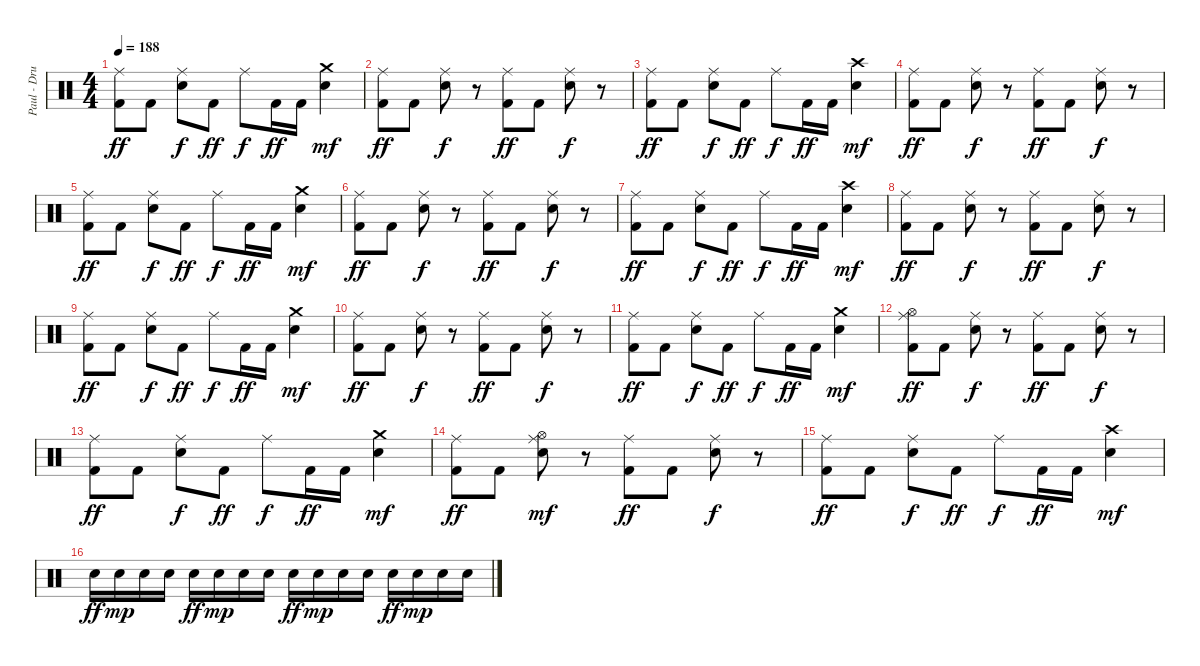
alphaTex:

\track ("Paul - Drums" "Paul - Dru") {instrument percussion}
\staff {score}
\articulation defaults
\ts (4 4)
\tempo 188
\clef neutral
\ks c
("Ride (middle)" "Kick (hit) 2").8{dy ff} "Kick (hit) 2".8 ("Ride (middle)" "Electric Snare (hit)").8{dy f} "Kick (hit) 2".8{dy ff} "Ride (middle)".8{dy f} "Kick (hit) 2".16{dy ff} "Kick (hit) 2".16 ("Crash medium (hit)" "Electric Snare (hit)").4{dy mf} |
("Ride (middle)" "Kick (hit) 2").8{dy ff} "Kick (hit) 2".8 ("Ride (middle)" "Electric Snare (hit)").8{dy f} r.8 ("Ride (middle)" "Kick (hit) 2").8{dy ff} "Kick (hit) 2".8 ("Ride (middle)" "Electric Snare (hit)").8{dy f} r.8 |
("Ride (middle)" "Kick (hit) 2").8{dy ff} "Kick (hit) 2".8 ("Ride (middle)" "Electric Snare (hit)").8{dy f} "Kick (hit) 2".8{dy ff} "Ride (middle)".8{dy f} "Kick (hit) 2".16{dy ff} "Kick (hit) 2".16 ("Crash high (hit)" "Electric Snare (hit)").4{dy mf} |
("Ride (middle)" "Kick (hit) 2").8{dy ff} "Kick (hit) 2".8 ("Ride (middle)" "Electric Snare (hit)").8{dy f} r.8 ("Ride (middle)" "Kick (hit) 2").8{dy ff} "Kick (hit) 2".8 ("Ride (middle)" "Electric Snare (hit)").8{dy f} r.8 |
("Ride (middle)" "Kick (hit) 2").8{dy ff} "Kick (hit) 2".8 ("Ride (middle)" "Electric Snare (hit)").8{dy f} "Kick (hit) 2".8{dy ff} "Ride (middle)".8{dy f} "Kick (hit) 2".16{dy ff} "Kick (hit) 2".16 ("Crash medium (hit)" "Electric Snare (hit)").4{dy mf} |
("Ride (middle)" "Kick (hit) 2").8{dy ff} "Kick (hit) 2".8 ("Ride (middle)" "Electric Snare (hit)").8{dy f} r.8 ("Ride (middle)" "Kick (hit) 2").8{dy ff} "Kick (hit) 2".8 ("Ride (middle)" "Electric Snare (hit)").8{dy f} r.8 |
("Ride (middle)" "Kick (hit) 2").8{dy ff} "Kick (hit) 2".8 ("Ride (middle)" "Electric Snare (hit)").8{dy f} "Kick (hit) 2".8{dy ff} "Ride (middle)".8{dy f} "Kick (hit) 2".16{dy ff} "Kick (hit) 2".16 ("Crash high (hit)" "Electric Snare (hit)").4{dy mf} |
("Ride (middle)" "Kick (hit) 2").8{dy ff} "Kick (hit) 2".8 ("Ride (middle)" "Electric Snare (hit)").8{dy f} r.8 ("Ride (middle)" "Kick (hit) 2").8{dy ff} "Kick (hit) 2".8 ("Ride (middle)" "Electric Snare (hit)").8{dy f} r.8 |
("Ride (middle)" "Kick (hit) 2").8{dy ff} "Kick (hit) 2".8 ("Ride (middle)" "Electric Snare (hit)").8{dy f} "Kick (hit) 2".8{dy ff} "Ride (middle)".8{dy f} "Kick (hit) 2".16{dy ff} "Kick (hit) 2".16 ("Crash medium (hit)" "Electric Snare (hit)").4{dy mf} |
("Ride (middle)" "Kick (hit) 2").8{dy ff} "Kick (hit) 2".8 ("Ride (middle)" "Electric Snare (hit)").8{dy f} r.8 ("Ride (middle)" "Kick (hit) 2").8{dy ff} "Kick (hit) 2".8 ("Ride (middle)" "Electric Snare (hit)").8{dy f} r.8 |
("Ride (middle)" "Kick (hit) 2").8{dy ff} "Kick (hit) 2".8 ("Ride (middle)" "Electric Snare (hit)").8{dy f} "Kick (hit) 2".8{dy ff} "Ride (middle)".8{dy f} "Kick (hit) 2".16{dy ff} "Kick (hit) 2".16 ("Crash medium (hit)" "Electric Snare (hit)").4{dy mf} |
("Ride (middle)" "Hi-Hat (open)" "Kick (hit) 2").8{dy ff} "Kick (hit) 2".8 ("Ride (middle)" "Electric Snare (hit)").8{dy f} r.8 ("Ride (middle)" "Kick (hit) 2").8{dy ff} "Kick (hit) 2".8 ("Ride (middle)" "Electric Snare (hit)").8{dy f} r.8 |
("Ride (middle)" "Kick (hit) 2").8{dy ff} "Kick (hit) 2".8 ("Ride (middle)" "Electric Snare (hit)").8{dy f} "Kick (hit) 2".8{dy ff} "Ride (middle)".8{dy f} "Kick (hit) 2".16{dy ff} "Kick (hit) 2".16 ("Crash medium (hit)" "Electric Snare (hit)").4{dy mf} |
("Ride (middle)" "Kick (hit) 2").8{dy ff} "Kick (hit) 2".8 ("Ride (middle)" "Hi-Hat (open)" "Electric Snare (hit)").8{dy mf} r.8 ("Ride (middle)" "Kick (hit) 2").8{dy ff} "Kick (hit) 2".8 ("Ride (middle)" "Electric Snare (hit)").8{dy f} r.8 |
("Ride (middle)" "Kick (hit) 2").8{dy ff} "Kick (hit) 2".8 ("Ride (middle)" "Electric Snare (hit)").8{dy f} "Kick (hit) 2".8{dy ff} "Ride (middle)".8{dy f} "Kick (hit) 2".16{dy ff} "Kick (hit) 2".16 ("Crash high (hit)" "Electric Snare (hit)").4{dy mf} |
"Electric Snare (hit)".16{dy ff} "Electric Snare (hit)".16{dy mp} "Electric Snare (hit)".16 "Electric Snare (hit)".16 "Electric Snare (hit)".16{dy ff} "Electric Snare (hit)".16{dy mp} "Electric Snare (hit)".16 "Electric Snare (hit)".16 "Electric Snare (hit)".16{dy ff} "Electric Snare (hit)".16{dy mp} "Electric Snare (hit)".16 "Electric Snare (hit)".16 "Electric Snare (hit)".16{dy ff} "Electric Snare (hit)".16{dy mp} "Electric Snare (hit)".16 "Electric Snare (hit)".16
